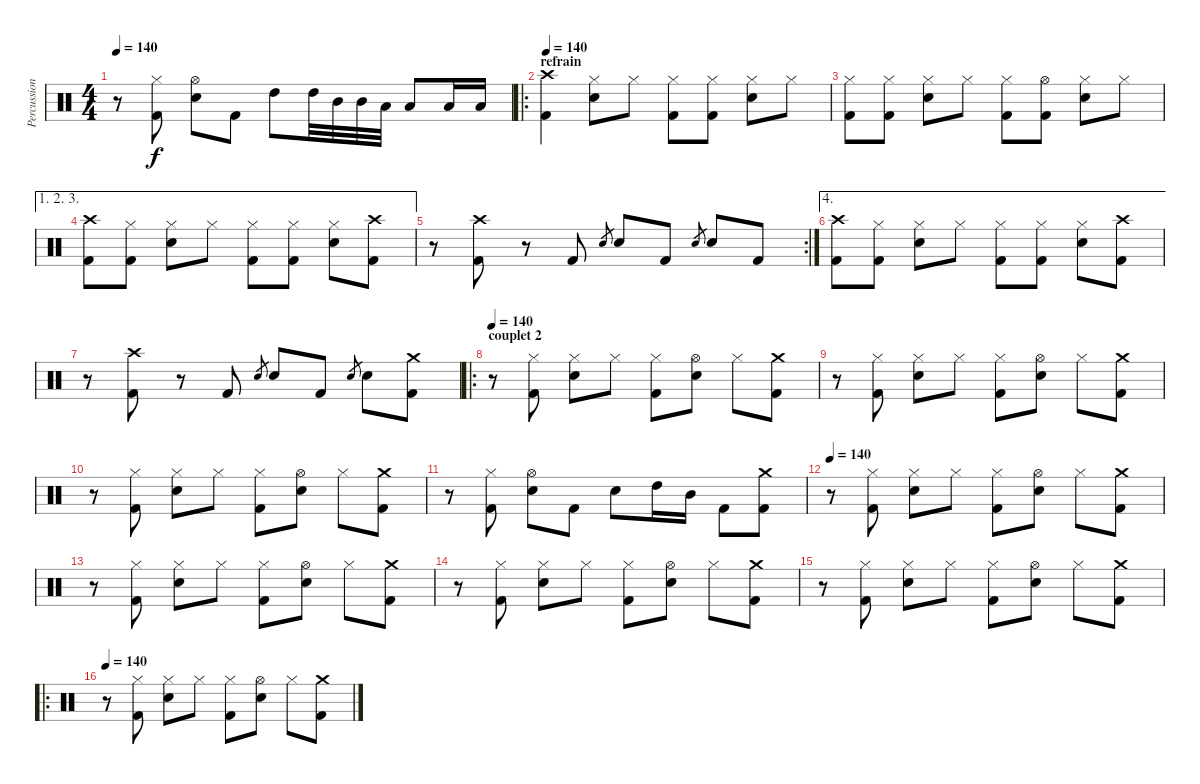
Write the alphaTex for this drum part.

\track ("Percussions" "Percussion") {instrument percussion}
\staff {score}
\articulation defaults
\ts (4 4)
\tempo 140
\clef neutral
\ks c
r.8{dy f} ("Hi-Hat (closed)" "Kick (hit) 2").8 ("Hi-Hat (open)" "Electric Snare (hit)").8 "Kick (hit) 2".8 "High Tom (hit)".8 "High Tom (hit)".32 "Mid Tom (hit)".32 "Mid Tom (hit)".32 "Low Tom (hit)".32 "Low Tom (hit)".8 "Low Tom (hit)".16 "Low Tom (hit)".16 |
\ro
\section ("" "refrain")
\tempo 140
("Crash high (hit)" "Kick (hit) 2").4 ("Hi-Hat (closed)" "Electric Snare (hit)").8 "Hi-Hat (closed)".8 ("Hi-Hat (closed)" "Kick (hit) 2").8 ("Hi-Hat (closed)" "Kick (hit) 2").8 ("Hi-Hat (closed)" "Electric Snare (hit)").8 "Hi-Hat (closed)".8 |
("Hi-Hat (closed)" "Kick (hit) 2").8 ("Hi-Hat (closed)" "Kick (hit) 2").8 ("Hi-Hat (closed)" "Electric Snare (hit)").8 "Hi-Hat (closed)".8 ("Hi-Hat (closed)" "Kick (hit) 2").8 ("Hi-Hat (open)" "Kick (hit) 2").8 ("Hi-Hat (closed)" "Electric Snare (hit)").8 "Hi-Hat (closed)".8 |
\ae (1 2 3)
("Crash high (hit)" "Kick (hit) 2").8 ("Hi-Hat (closed)" "Kick (hit) 2").8 ("Hi-Hat (closed)" "Electric Snare (hit)").8 "Hi-Hat (closed)".8 ("Hi-Hat (closed)" "Kick (hit) 2").8 ("Hi-Hat (closed)" "Kick (hit) 2").8 ("Hi-Hat (closed)" "Electric Snare (hit)").8 ("Crash high (hit)" "Kick (hit) 2").8 |
\rc 2
r.8 ("Crash high (hit)" "Kick (hit) 2").8 r.8 "Kick (hit) 2".8 "Electric Snare (hit)".8{gr} "Electric Snare (hit)".8 "Kick (hit) 2".8 "Electric Snare (hit)".8{gr} "Electric Snare (hit)".8 "Kick (hit) 2".8 |
\ae 4
("Crash high (hit)" "Kick (hit) 2").8 ("Hi-Hat (closed)" "Kick (hit) 2").8 ("Hi-Hat (closed)" "Electric Snare (hit)").8 "Hi-Hat (closed)".8 ("Hi-Hat (closed)" "Kick (hit) 2").8 ("Hi-Hat (closed)" "Kick (hit) 2").8 ("Hi-Hat (closed)" "Electric Snare (hit)").8 ("Crash high (hit)" "Kick (hit) 2").8 |
r.8 ("Crash high (hit)" "Kick (hit) 2").8 r.8 "Kick (hit) 2".8 "Electric Snare (hit)".8{gr} "Electric Snare (hit)".8 "Kick (hit) 2".8 "Electric Snare (hit)".8{gr} "Electric Snare (hit)".8 ("Crash medium (hit)" "Kick (hit) 2").8 |
\ro
\section ("" "couplet 2")
\tempo 140
r.8 ("Hi-Hat (closed)" "Kick (hit) 2").8 ("Hi-Hat (closed)" "Electric Snare (hit)").8 "Hi-Hat (closed)".8 ("Hi-Hat (closed)" "Kick (hit) 2").8 ("Hi-Hat (open)" "Electric Snare (hit)").8 "Hi-Hat (closed)".8 ("Crash medium (hit)" "Kick (hit) 2").8 |
r.8 ("Hi-Hat (closed)" "Kick (hit) 2").8 ("Hi-Hat (closed)" "Electric Snare (hit)").8 "Hi-Hat (closed)".8 ("Hi-Hat (closed)" "Kick (hit) 2").8 ("Hi-Hat (open)" "Electric Snare (hit)").8 "Hi-Hat (closed)".8 ("Crash medium (hit)" "Kick (hit) 2").8 |
r.8 ("Hi-Hat (closed)" "Kick (hit) 2").8 ("Hi-Hat (closed)" "Electric Snare (hit)").8 "Hi-Hat (closed)".8 ("Hi-Hat (closed)" "Kick (hit) 2").8 ("Hi-Hat (open)" "Electric Snare (hit)").8 "Hi-Hat (closed)".8 ("Crash medium (hit)" "Kick (hit) 2").8 |
r.8 ("Hi-Hat (closed)" "Kick (hit) 2").8 ("Hi-Hat (open)" "Electric Snare (hit)").8 "Kick (hit) 2".8 "Electric Snare (hit)".8 "High Tom (hit)".16 "Mid Tom (hit)".16 "Kick (hit) 2".8 ("Crash medium (hit)" "Kick (hit) 2").8 |
\tempo 140
r.8 ("Hi-Hat (closed)" "Kick (hit) 2").8 ("Hi-Hat (closed)" "Electric Snare (hit)").8 "Hi-Hat (closed)".8 ("Hi-Hat (closed)" "Kick (hit) 2").8 ("Hi-Hat (open)" "Electric Snare (hit)").8 "Hi-Hat (closed)".8 ("Crash medium (hit)" "Kick (hit) 2").8 |
r.8 ("Hi-Hat (closed)" "Kick (hit) 2").8 ("Hi-Hat (closed)" "Electric Snare (hit)").8 "Hi-Hat (closed)".8 ("Hi-Hat (closed)" "Kick (hit) 2").8 ("Hi-Hat (open)" "Electric Snare (hit)").8 "Hi-Hat (closed)".8 ("Crash medium (hit)" "Kick (hit) 2").8 |
r.8 ("Hi-Hat (closed)" "Kick (hit) 2").8 ("Hi-Hat (closed)" "Electric Snare (hit)").8 "Hi-Hat (closed)".8 ("Hi-Hat (closed)" "Kick (hit) 2").8 ("Hi-Hat (open)" "Electric Snare (hit)").8 "Hi-Hat (closed)".8 ("Crash medium (hit)" "Kick (hit) 2").8 |
r.8 ("Hi-Hat (closed)" "Kick (hit) 2").8 ("Hi-Hat (closed)" "Electric Snare (hit)").8 "Hi-Hat (closed)".8 ("Hi-Hat (closed)" "Kick (hit) 2").8 ("Hi-Hat (open)" "Electric Snare (hit)").8 "Hi-Hat (closed)".8 ("Crash medium (hit)" "Kick (hit) 2").8 |
\ro
\tempo 140
r.8 ("Hi-Hat (closed)" "Kick (hit) 2").8 ("Hi-Hat (closed)" "Electric Snare (hit)").8 "Hi-Hat (closed)".8 ("Hi-Hat (closed)" "Kick (hit) 2").8 ("Hi-Hat (open)" "Electric Snare (hit)").8 "Hi-Hat (closed)".8 ("Crash medium (hit)" "Kick (hit) 2").8
